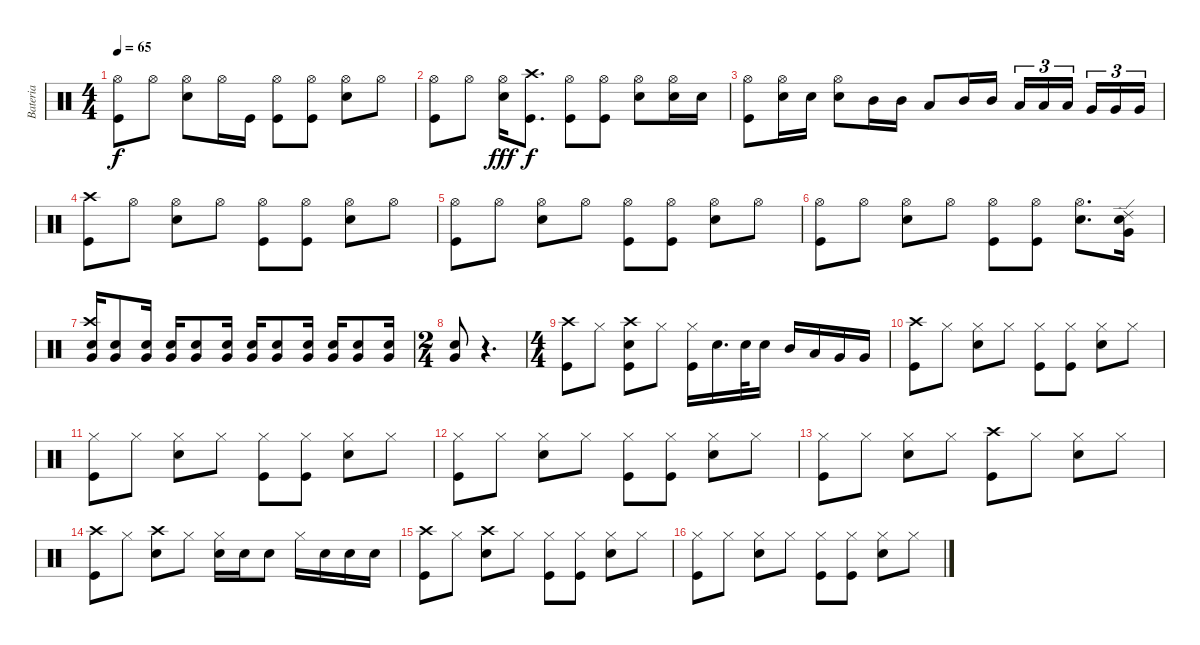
\track ("Bateria" "Bateria") {instrument percussion}
\staff {score}
\articulation defaults
\ts (4 4)
\tempo 65
\clef neutral
\ks c
("Kick (hit)" "Hi-Hat (open)").8{dy f} "Hi-Hat (open)".8 ("Hi-Hat (open)" "Snare (hit) 2").8 "Hi-Hat (open)".16 "Kick (hit)".16 ("Hi-Hat (open)" "Kick (hit)").8 ("Hi-Hat (open)" "Kick (hit)").8 ("Hi-Hat (open)" "Snare (hit) 2").8 "Hi-Hat (open)".8 |
("Hi-Hat (open)" "Kick (hit)").8 "Hi-Hat (open)".8 ("Hi-Hat (open)" "Snare (hit) 2").16{dy fff} ("Kick (hit)" "Crash high (hit)").8{d dy f} ("Hi-Hat (open)" "Kick (hit)").8 ("Hi-Hat (open)" "Kick (hit)").8 ("Hi-Hat (open)" "Snare (hit) 2").8 ("Snare (hit) 2" "Hi-Hat (open)").16 "Snare (hit) 2".16 |
("Hi-Hat (open)" "Kick (hit)").8 ("Snare (hit) 2" "Hi-Hat (open)").16 "Snare (hit) 2".16 ("Snare (hit) 2" "Hi-Hat (open)").8 "Mid Tom (hit)".16 "Mid Tom (hit)".16 "Low Tom (hit)".8 "Mid Tom (hit)".16 "Mid Tom (hit)".16 "Low Tom (hit)".16{tu (3 2)} "Low Tom (hit)".16{tu (3 2)} "Low Tom (hit)".16{tu (3 2) beam splitsecondary} "Very Low Tom (hit)".16{tu (3 2)} "Very Low Tom (hit)".16{tu (3 2)} "Very Low Tom (hit)".16{tu (3 2)} |
("Crash high (hit)" "Kick (hit)").8 "Hi-Hat (open)".8 ("Hi-Hat (open)" "Snare (hit) 2").8 "Hi-Hat (open)".8 ("Hi-Hat (open)" "Kick (hit)").8 ("Hi-Hat (open)" "Kick (hit)").8 ("Hi-Hat (open)" "Snare (hit) 2").8 "Hi-Hat (open)".8 |
("Kick (hit)" "Hi-Hat (open)").8 "Hi-Hat (open)".8 ("Hi-Hat (open)" "Snare (hit) 2").8 "Hi-Hat (open)".8 ("Hi-Hat (open)" "Kick (hit)").8 ("Hi-Hat (open)" "Kick (hit)").8 ("Hi-Hat (open)" "Snare (hit) 2").8 "Hi-Hat (open)".8 |
("Kick (hit)" "Hi-Hat (open)").8 "Hi-Hat (open)".8 ("Hi-Hat (open)" "Snare (hit) 2").8 "Hi-Hat (open)".8 ("Hi-Hat (open)" "Kick (hit)").8 ("Hi-Hat (open)" "Kick (hit)").8 ("Hi-Hat (open)" "Snare (hit) 2").8{d} ("Ride (edge) 2" "Snare (hit) 2" "Very Low Tom (hit)").16 |
("Snare (hit) 2" "Crash high (hit)" "Very Low Tom (hit)").16 ("Snare (hit) 2" "Very Low Tom (hit)").8 ("Snare (hit) 2" "Very Low Tom (hit)").16 ("Snare (hit) 2" "Very Low Tom (hit)").16 ("Snare (hit) 2" "Very Low Tom (hit)").8 ("Snare (hit) 2" "Very Low Tom (hit)").16 ("Snare (hit) 2" "Very Low Tom (hit)").16 ("Snare (hit) 2" "Very Low Tom (hit)").8 ("Snare (hit) 2" "Very Low Tom (hit)").16 ("Snare (hit) 2" "Very Low Tom (hit)").16 ("Snare (hit) 2" "Very Low Tom (hit)").8 ("Snare (hit) 2" "Very Low Tom (hit)").16 |
\ts (2 4)
("Snare (hit) 2" "Very Low Tom (hit)").8 r.4{d} |
\ts (4 4)
("Kick (hit)" "Crash high (hit)").8 "Hi-Hat (closed)".8 ("Kick (hit)" "Snare (hit) 2" "Crash high (hit)").8 "Hi-Hat (closed)".8 ("Kick (hit)" "Hi-Hat (closed)").16 "Snare (hit) 2".16{d} "Snare (hit) 2".32 "Snare (hit) 2".16 "Mid Tom (hit)".16 "Low Tom (hit)".16 "Very Low Tom (hit)".16 "Very Low Tom (hit)".16 |
("Crash high (hit)" "Kick (hit)").8 "Hi-Hat (closed)".8 ("Hi-Hat (closed)" "Snare (hit) 2").8 "Hi-Hat (closed)".8 ("Hi-Hat (closed)" "Kick (hit)").8 ("Hi-Hat (closed)" "Kick (hit)").8 ("Hi-Hat (closed)" "Snare (hit) 2").8 "Hi-Hat (closed)".8 |
("Hi-Hat (closed)" "Kick (hit)").8 "Hi-Hat (closed)".8 ("Hi-Hat (closed)" "Snare (hit) 2").8 "Hi-Hat (closed)".8 ("Hi-Hat (closed)" "Kick (hit)").8 ("Hi-Hat (closed)" "Kick (hit)").8 ("Hi-Hat (closed)" "Snare (hit) 2").8 "Hi-Hat (closed)".8 |
("Hi-Hat (closed)" "Kick (hit)").8 "Hi-Hat (closed)".8 ("Hi-Hat (closed)" "Snare (hit) 2").8 "Hi-Hat (closed)".8 ("Hi-Hat (closed)" "Kick (hit)").8 ("Hi-Hat (closed)" "Kick (hit)").8 ("Hi-Hat (closed)" "Snare (hit) 2").8 "Hi-Hat (closed)".8 |
("Hi-Hat (closed)" "Kick (hit)").8 "Hi-Hat (closed)".8 ("Hi-Hat (closed)" "Snare (hit) 2").8 "Hi-Hat (closed)".8 ("Crash high (hit)" "Kick (hit)").8 "Hi-Hat (closed)".8 ("Hi-Hat (closed)" "Snare (hit) 2").8 "Hi-Hat (closed)".8 |
("Crash high (hit)" "Kick (hit)").8 "Hi-Hat (closed)".8 ("Crash high (hit)" "Snare (hit) 2").8 "Hi-Hat (closed)".8 ("Hi-Hat (closed)" "Snare (hit) 2").16 "Snare (hit) 2".16 "Snare (hit) 2".8 "Hi-Hat (closed)".16 "Snare (hit) 2".16 "Snare (hit) 2".16 "Snare (hit) 2".16 |
("Crash high (hit)" "Kick (hit)").8 "Hi-Hat (closed)".8 ("Crash high (hit)" "Snare (hit) 2").8 "Hi-Hat (closed)".8 ("Hi-Hat (closed)" "Kick (hit)").8 ("Hi-Hat (closed)" "Kick (hit)").8 ("Hi-Hat (closed)" "Snare (hit) 2").8 "Hi-Hat (closed)".8 |
("Hi-Hat (closed)" "Kick (hit)").8 "Hi-Hat (closed)".8 ("Hi-Hat (closed)" "Snare (hit) 2").8 "Hi-Hat (closed)".8 ("Hi-Hat (closed)" "Kick (hit)").8 ("Hi-Hat (closed)" "Kick (hit)").8 ("Hi-Hat (closed)" "Snare (hit) 2").8 "Hi-Hat (closed)".8
